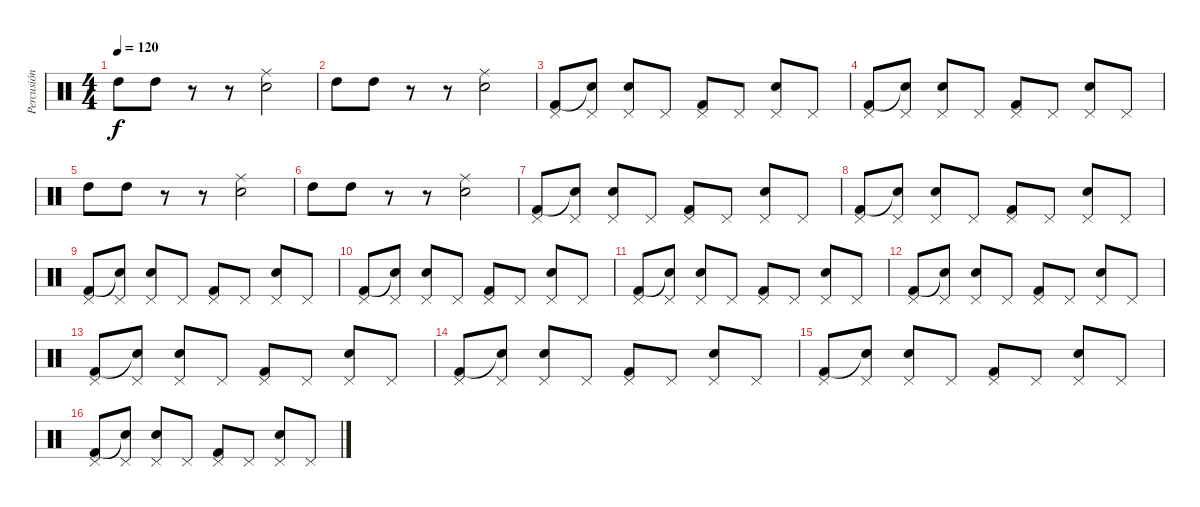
\track ("Percusión" "Percusión") {instrument percussion}
\staff {score}
\articulation defaults
\ts (4 4)
\tempo 120
\clef neutral
\ks c "High Tom (hit)".8{dy f} "High Tom (hit)".8
r.8 r.8 ("Snare (hit) 2" "Ride (middle)").2 |
"High Tom (hit)".8 "High Tom (hit)".8 r.8 r.8 ("Snare (hit) 2" "Ride (middle)").2 |
("Pedal Hi-Hat (hit)" "Kick (hit) 2").8 ("Pedal Hi-Hat (hit)" "Snare (hit)"{t}).8 ("Pedal Hi-Hat (hit)" "Snare (hit) 2").8 "Pedal Hi-Hat (hit)".8 ("Pedal Hi-Hat (hit)" "Kick (hit) 2").8 "Pedal Hi-Hat (hit)".8 ("Pedal Hi-Hat (hit)" "Snare (hit) 2").8 "Pedal Hi-Hat (hit)".8 |
("Pedal Hi-Hat (hit)" "Kick (hit) 2").8 ("Pedal Hi-Hat (hit)" "Snare (hit)"{t}).8 ("Pedal Hi-Hat (hit)" "Snare (hit) 2").8 "Pedal Hi-Hat (hit)".8 ("Pedal Hi-Hat (hit)" "Kick (hit) 2").8 "Pedal Hi-Hat (hit)".8 ("Pedal Hi-Hat (hit)" "Snare (hit) 2").8 "Pedal Hi-Hat (hit)".8 |
"High Tom (hit)".8 "High Tom (hit)".8 r.8 r.8 ("Snare (hit) 2" "Ride (middle)").2 |
"High Tom (hit)".8 "High Tom (hit)".8 r.8 r.8 ("Snare (hit) 2" "Ride (middle)").2 |
("Pedal Hi-Hat (hit)" "Kick (hit) 2").8 ("Pedal Hi-Hat (hit)" "Snare (hit)"{t}).8 ("Pedal Hi-Hat (hit)" "Snare (hit) 2").8 "Pedal Hi-Hat (hit)".8 ("Pedal Hi-Hat (hit)" "Kick (hit) 2").8 "Pedal Hi-Hat (hit)".8 ("Pedal Hi-Hat (hit)" "Snare (hit) 2").8 "Pedal Hi-Hat (hit)".8 |
("Pedal Hi-Hat (hit)" "Kick (hit) 2").8 ("Pedal Hi-Hat (hit)" "Snare (hit)"{t}).8 ("Pedal Hi-Hat (hit)" "Snare (hit) 2").8 "Pedal Hi-Hat (hit)".8 ("Pedal Hi-Hat (hit)" "Kick (hit) 2").8 "Pedal Hi-Hat (hit)".8 ("Pedal Hi-Hat (hit)" "Snare (hit) 2").8 "Pedal Hi-Hat (hit)".8 |
("Pedal Hi-Hat (hit)" "Kick (hit) 2").8 ("Pedal Hi-Hat (hit)" "Snare (hit)"{t}).8 ("Pedal Hi-Hat (hit)" "Snare (hit) 2").8 "Pedal Hi-Hat (hit)".8 ("Pedal Hi-Hat (hit)" "Kick (hit) 2").8 "Pedal Hi-Hat (hit)".8 ("Pedal Hi-Hat (hit)" "Snare (hit) 2").8 "Pedal Hi-Hat (hit)".8 |
("Pedal Hi-Hat (hit)" "Kick (hit) 2").8 ("Pedal Hi-Hat (hit)" "Snare (hit)"{t}).8 ("Pedal Hi-Hat (hit)" "Snare (hit) 2").8 "Pedal Hi-Hat (hit)".8 ("Pedal Hi-Hat (hit)" "Kick (hit) 2").8 "Pedal Hi-Hat (hit)".8 ("Pedal Hi-Hat (hit)" "Snare (hit) 2").8 "Pedal Hi-Hat (hit)".8 |
("Pedal Hi-Hat (hit)" "Kick (hit) 2").8 ("Pedal Hi-Hat (hit)" "Snare (hit)"{t}).8 ("Pedal Hi-Hat (hit)" "Snare (hit) 2").8 "Pedal Hi-Hat (hit)".8 ("Pedal Hi-Hat (hit)" "Kick (hit) 2").8 "Pedal Hi-Hat (hit)".8 ("Pedal Hi-Hat (hit)" "Snare (hit) 2").8 "Pedal Hi-Hat (hit)".8 |
("Pedal Hi-Hat (hit)" "Kick (hit) 2").8 ("Pedal Hi-Hat (hit)" "Snare (hit)"{t}).8 ("Pedal Hi-Hat (hit)" "Snare (hit) 2").8 "Pedal Hi-Hat (hit)".8 ("Pedal Hi-Hat (hit)" "Kick (hit) 2").8 "Pedal Hi-Hat (hit)".8 ("Pedal Hi-Hat (hit)" "Snare (hit) 2").8 "Pedal Hi-Hat (hit)".8 |
("Pedal Hi-Hat (hit)" "Kick (hit) 2").8 ("Pedal Hi-Hat (hit)" "Snare (hit)"{t}).8 ("Pedal Hi-Hat (hit)" "Snare (hit) 2").8 "Pedal Hi-Hat (hit)".8 ("Pedal Hi-Hat (hit)" "Kick (hit) 2").8 "Pedal Hi-Hat (hit)".8 ("Pedal Hi-Hat (hit)" "Snare (hit) 2").8 "Pedal Hi-Hat (hit)".8 |
("Pedal Hi-Hat (hit)" "Kick (hit) 2").8 ("Pedal Hi-Hat (hit)" "Snare (hit)"{t}).8 ("Pedal Hi-Hat (hit)" "Snare (hit) 2").8 "Pedal Hi-Hat (hit)".8 ("Pedal Hi-Hat (hit)" "Kick (hit) 2").8 "Pedal Hi-Hat (hit)".8 ("Pedal Hi-Hat (hit)" "Snare (hit) 2").8 "Pedal Hi-Hat (hit)".8 |
("Pedal Hi-Hat (hit)" "Kick (hit) 2").8 ("Pedal Hi-Hat (hit)" "Snare (hit)"{t}).8 ("Pedal Hi-Hat (hit)" "Snare (hit) 2").8 "Pedal Hi-Hat (hit)".8 ("Pedal Hi-Hat (hit)" "Kick (hit) 2").8 "Pedal Hi-Hat (hit)".8 ("Pedal Hi-Hat (hit)" "Snare (hit) 2").8 "Pedal Hi-Hat (hit)".8 |
("Pedal Hi-Hat (hit)" "Kick (hit) 2").8 ("Pedal Hi-Hat (hit)" "Snare (hit)"{t}).8 ("Pedal Hi-Hat (hit)" "Snare (hit) 2").8 "Pedal Hi-Hat (hit)".8 ("Pedal Hi-Hat (hit)" "Kick (hit) 2").8 "Pedal Hi-Hat (hit)".8 ("Pedal Hi-Hat (hit)" "Snare (hit) 2").8 "Pedal Hi-Hat (hit)".8
